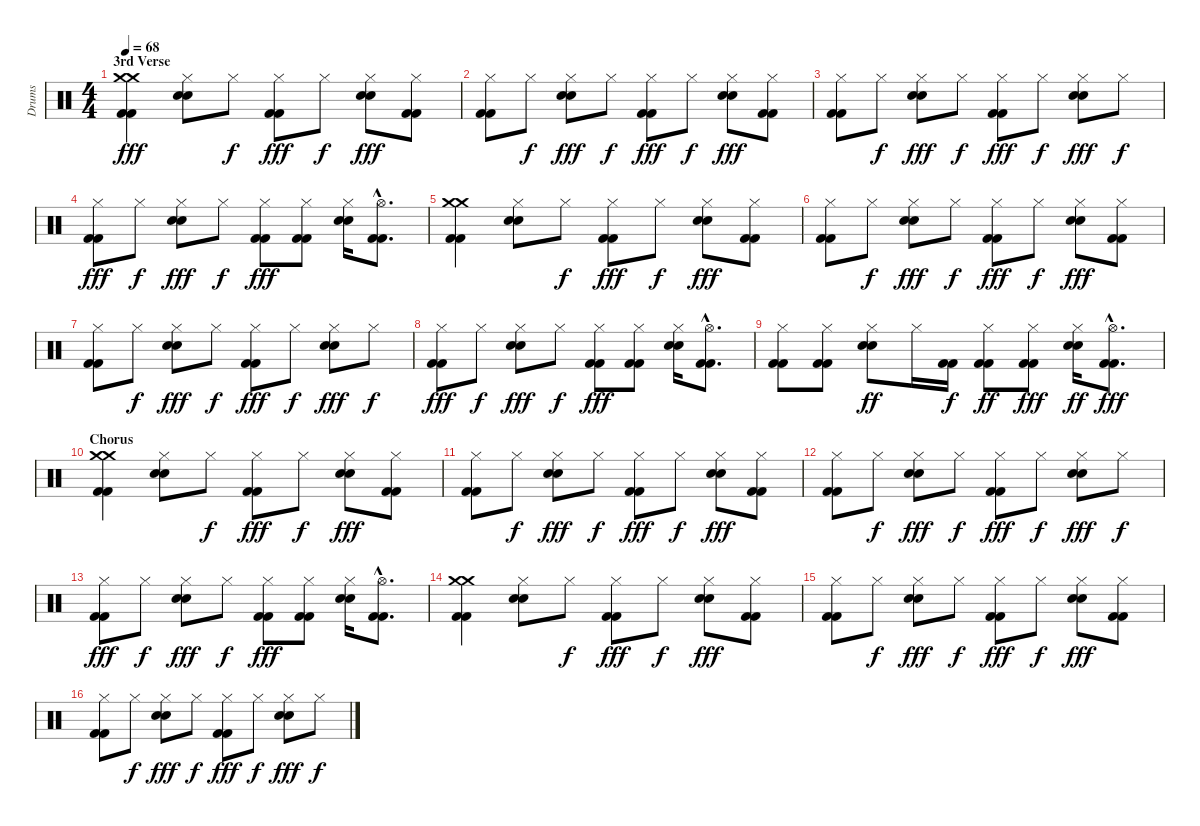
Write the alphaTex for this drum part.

\track ("Drums" "Drums") {instrument percussion}
\staff {score}
\articulation defaults
\ts (4 4)
\section ("" "3rd Verse")
\tempo 68
\clef neutral
\ks c
("Crash medium (hit)" "Crash medium (hit)" "Kick (hit) 2" "Kick (hit) 2").4{dy fff} ("Hi-Hat (closed)" "Electric Snare (hit)" "Electric Snare (hit)").8 "Hi-Hat (closed)".8{dy f} ("Hi-Hat (closed)" "Kick (hit) 2" "Kick (hit) 2").8{dy fff} "Hi-Hat (closed)".8{dy f} ("Hi-Hat (closed)" "Electric Snare (hit)" "Electric Snare (hit)").8{dy fff} ("Hi-Hat (closed)" "Kick (hit) 2" "Kick (hit) 2").8 |
("Hi-Hat (closed)" "Kick (hit) 2" "Kick (hit) 2").8 "Hi-Hat (closed)".8{dy f} ("Hi-Hat (closed)" "Electric Snare (hit)" "Electric Snare (hit)").8{dy fff} "Hi-Hat (closed)".8{dy f} ("Hi-Hat (closed)" "Kick (hit) 2" "Kick (hit) 2").8{dy fff} "Hi-Hat (closed)".8{dy f} ("Hi-Hat (closed)" "Electric Snare (hit)" "Electric Snare (hit)").8{dy fff} ("Hi-Hat (closed)" "Kick (hit) 2" "Kick (hit) 2").8 |
("Hi-Hat (closed)" "Kick (hit) 2" "Kick (hit) 2").8 "Hi-Hat (closed)".8{dy f} ("Hi-Hat (closed)" "Electric Snare (hit)" "Electric Snare (hit)").8{dy fff} "Hi-Hat (closed)".8{dy f} ("Hi-Hat (closed)" "Kick (hit) 2" "Kick (hit) 2").8{dy fff} "Hi-Hat (closed)".8{dy f} ("Hi-Hat (closed)" "Electric Snare (hit)" "Electric Snare (hit)").8{dy fff} "Hi-Hat (closed)".8{dy f} |
("Hi-Hat (closed)" "Kick (hit) 2" "Kick (hit) 2").8{dy fff} "Hi-Hat (closed)".8{dy f} ("Hi-Hat (closed)" "Electric Snare (hit)" "Electric Snare (hit)").8{dy fff} "Hi-Hat (closed)".8{dy f} ("Hi-Hat (closed)" "Kick (hit) 2" "Kick (hit) 2").8{dy fff} ("Hi-Hat (closed)" "Kick (hit) 2" "Kick (hit) 2").8 ("Hi-Hat (closed)" "Electric Snare (hit)" "Electric Snare (hit)").16 ("Hi-Hat (open)"{hac} "Kick (hit) 2"{hac} "Kick (hit) 2"{hac}).8{d} |
("Crash medium (hit)" "Crash medium (hit)" "Kick (hit) 2" "Kick (hit) 2").4 ("Hi-Hat (closed)" "Electric Snare (hit)" "Electric Snare (hit)").8 "Hi-Hat (closed)".8{dy f} ("Hi-Hat (closed)" "Kick (hit) 2" "Kick (hit) 2").8{dy fff} "Hi-Hat (closed)".8{dy f} ("Hi-Hat (closed)" "Electric Snare (hit)" "Electric Snare (hit)").8{dy fff} ("Hi-Hat (closed)" "Kick (hit) 2" "Kick (hit) 2").8 |
("Hi-Hat (closed)" "Kick (hit) 2" "Kick (hit) 2").8 "Hi-Hat (closed)".8{dy f} ("Hi-Hat (closed)" "Electric Snare (hit)" "Electric Snare (hit)").8{dy fff} "Hi-Hat (closed)".8{dy f} ("Hi-Hat (closed)" "Kick (hit) 2" "Kick (hit) 2").8{dy fff} "Hi-Hat (closed)".8{dy f} ("Hi-Hat (closed)" "Electric Snare (hit)" "Electric Snare (hit)").8{dy fff} ("Hi-Hat (closed)" "Kick (hit) 2" "Kick (hit) 2").8 |
("Hi-Hat (closed)" "Kick (hit) 2" "Kick (hit) 2").8 "Hi-Hat (closed)".8{dy f} ("Hi-Hat (closed)" "Electric Snare (hit)" "Electric Snare (hit)").8{dy fff} "Hi-Hat (closed)".8{dy f} ("Hi-Hat (closed)" "Kick (hit) 2" "Kick (hit) 2").8{dy fff} "Hi-Hat (closed)".8{dy f} ("Hi-Hat (closed)" "Electric Snare (hit)" "Electric Snare (hit)").8{dy fff} "Hi-Hat (closed)".8{dy f} |
("Hi-Hat (closed)" "Kick (hit) 2" "Kick (hit) 2").8{dy fff} "Hi-Hat (closed)".8{dy f} ("Hi-Hat (closed)" "Electric Snare (hit)" "Electric Snare (hit)").8{dy fff} "Hi-Hat (closed)".8{dy f} ("Hi-Hat (closed)" "Kick (hit) 2" "Kick (hit) 2").8{dy fff} ("Hi-Hat (closed)" "Kick (hit) 2" "Kick (hit) 2").8 ("Hi-Hat (closed)" "Electric Snare (hit)" "Electric Snare (hit)").16 ("Hi-Hat (open)"{hac} "Kick (hit) 2"{hac} "Kick (hit) 2"{hac}).8{d} |
("Hi-Hat (closed)" "Kick (hit) 2" "Kick (hit) 2").8 ("Hi-Hat (closed)" "Kick (hit) 2" "Kick (hit) 2").8 ("Hi-Hat (closed)" "Electric Snare (hit)" "Electric Snare (hit)").8{dy ff} "Hi-Hat (closed)".16 ("Kick (hit) 2" "Kick (hit) 2").16{dy f} ("Hi-Hat (closed)" "Kick (hit) 2" "Kick (hit) 2").8{dy ff} ("Hi-Hat (closed)" "Kick (hit) 2" "Kick (hit) 2").8{dy fff} ("Hi-Hat (closed)" "Electric Snare (hit)" "Electric Snare (hit)").16{dy ff} ("Hi-Hat (open)"{hac} "Kick (hit) 2"{hac} "Kick (hit) 2"{hac}).8{d dy fff} |
\section ("" "Chorus")
("Crash medium (hit)" "Crash medium (hit)" "Kick (hit) 2" "Kick (hit) 2").4 ("Hi-Hat (closed)" "Electric Snare (hit)" "Electric Snare (hit)").8 "Hi-Hat (closed)".8{dy f} ("Hi-Hat (closed)" "Kick (hit) 2" "Kick (hit) 2").8{dy fff} "Hi-Hat (closed)".8{dy f} ("Hi-Hat (closed)" "Electric Snare (hit)" "Electric Snare (hit)").8{dy fff} ("Hi-Hat (closed)" "Kick (hit) 2" "Kick (hit) 2").8 |
("Hi-Hat (closed)" "Kick (hit) 2" "Kick (hit) 2").8 "Hi-Hat (closed)".8{dy f} ("Hi-Hat (closed)" "Electric Snare (hit)" "Electric Snare (hit)").8{dy fff} "Hi-Hat (closed)".8{dy f} ("Hi-Hat (closed)" "Kick (hit) 2" "Kick (hit) 2").8{dy fff} "Hi-Hat (closed)".8{dy f} ("Hi-Hat (closed)" "Electric Snare (hit)" "Electric Snare (hit)").8{dy fff} ("Hi-Hat (closed)" "Kick (hit) 2" "Kick (hit) 2").8 |
("Hi-Hat (closed)" "Kick (hit) 2" "Kick (hit) 2").8 "Hi-Hat (closed)".8{dy f} ("Hi-Hat (closed)" "Electric Snare (hit)" "Electric Snare (hit)").8{dy fff} "Hi-Hat (closed)".8{dy f} ("Hi-Hat (closed)" "Kick (hit) 2" "Kick (hit) 2").8{dy fff} "Hi-Hat (closed)".8{dy f} ("Hi-Hat (closed)" "Electric Snare (hit)" "Electric Snare (hit)").8{dy fff} "Hi-Hat (closed)".8{dy f} |
("Hi-Hat (closed)" "Kick (hit) 2" "Kick (hit) 2").8{dy fff} "Hi-Hat (closed)".8{dy f} ("Hi-Hat (closed)" "Electric Snare (hit)" "Electric Snare (hit)").8{dy fff} "Hi-Hat (closed)".8{dy f} ("Hi-Hat (closed)" "Kick (hit) 2" "Kick (hit) 2").8{dy fff} ("Hi-Hat (closed)" "Kick (hit) 2" "Kick (hit) 2").8 ("Hi-Hat (closed)" "Electric Snare (hit)" "Electric Snare (hit)").16 ("Hi-Hat (open)"{hac} "Kick (hit) 2"{hac} "Kick (hit) 2"{hac}).8{d} |
("Crash medium (hit)" "Crash medium (hit)" "Kick (hit) 2" "Kick (hit) 2").4 ("Hi-Hat (closed)" "Electric Snare (hit)" "Electric Snare (hit)").8 "Hi-Hat (closed)".8{dy f} ("Hi-Hat (closed)" "Kick (hit) 2" "Kick (hit) 2").8{dy fff} "Hi-Hat (closed)".8{dy f} ("Hi-Hat (closed)" "Electric Snare (hit)" "Electric Snare (hit)").8{dy fff} ("Hi-Hat (closed)" "Kick (hit) 2" "Kick (hit) 2").8 |
("Hi-Hat (closed)" "Kick (hit) 2" "Kick (hit) 2").8 "Hi-Hat (closed)".8{dy f} ("Hi-Hat (closed)" "Electric Snare (hit)" "Electric Snare (hit)").8{dy fff} "Hi-Hat (closed)".8{dy f} ("Hi-Hat (closed)" "Kick (hit) 2" "Kick (hit) 2").8{dy fff} "Hi-Hat (closed)".8{dy f} ("Hi-Hat (closed)" "Electric Snare (hit)" "Electric Snare (hit)").8{dy fff} ("Hi-Hat (closed)" "Kick (hit) 2" "Kick (hit) 2").8 |
("Hi-Hat (closed)" "Kick (hit) 2" "Kick (hit) 2").8 "Hi-Hat (closed)".8{dy f} ("Hi-Hat (closed)" "Electric Snare (hit)" "Electric Snare (hit)").8{dy fff} "Hi-Hat (closed)".8{dy f} ("Hi-Hat (closed)" "Kick (hit) 2" "Kick (hit) 2").8{dy fff} "Hi-Hat (closed)".8{dy f} ("Hi-Hat (closed)" "Electric Snare (hit)" "Electric Snare (hit)").8{dy fff} "Hi-Hat (closed)".8{dy f}
